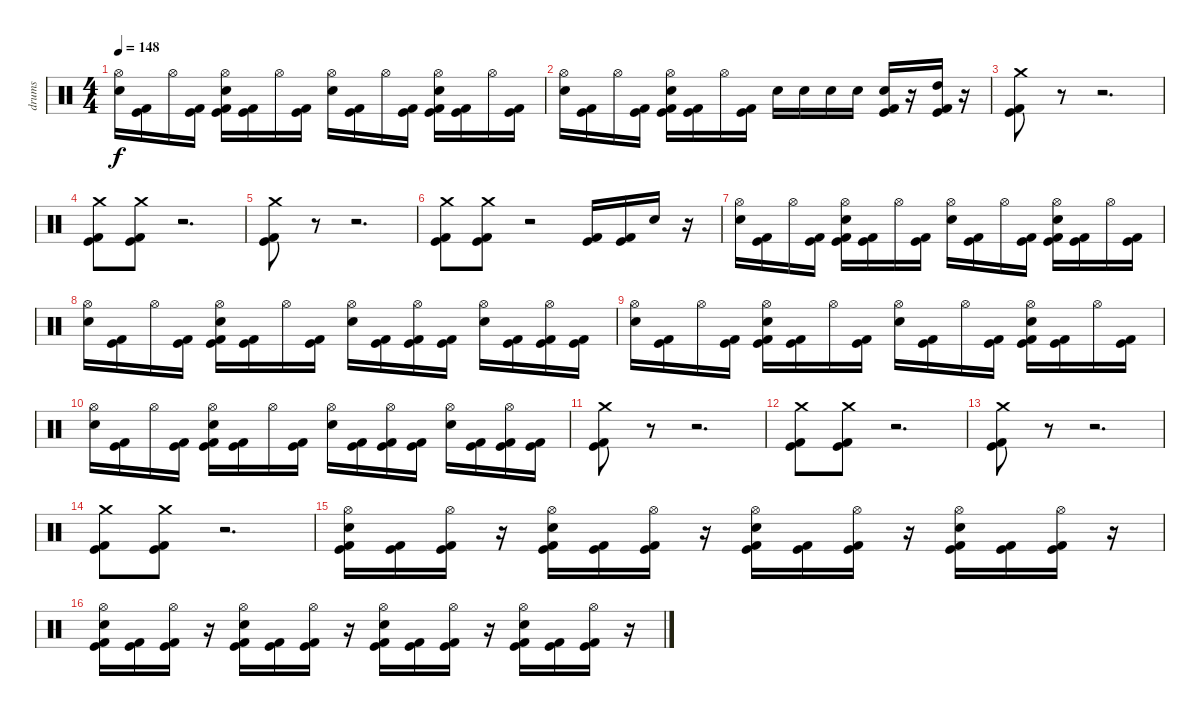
\track ("drums" "drums") {instrument percussion}
\staff {score}
\articulation defaults
\ts (4 4)
\tempo 148
\clef neutral
\ks c
("Snare (hit) 2" "Hi-Hat (open)").16{dy f} ("Kick (hit)" "Kick (hit) 2").16 "Hi-Hat (open)".16 ("Kick (hit)" "Kick (hit) 2").16 ("Kick (hit)" "Kick (hit) 2" "Snare (hit) 2" "Hi-Hat (open)").16 ("Kick (hit)" "Kick (hit) 2").16 "Hi-Hat (open)".16 ("Kick (hit)" "Kick (hit) 2").16 ("Snare (hit) 2" "Hi-Hat (open)").16 ("Kick (hit)" "Kick (hit) 2").16 "Hi-Hat (open)".16 ("Kick (hit)" "Kick (hit) 2").16 ("Kick (hit)" "Kick (hit) 2" "Snare (hit) 2" "Hi-Hat (open)").16 ("Kick (hit)" "Kick (hit) 2").16 "Hi-Hat (open)".16 ("Kick (hit)" "Kick (hit) 2").16 |
("Snare (hit) 2" "Hi-Hat (open)").16 ("Kick (hit)" "Kick (hit) 2").16 "Hi-Hat (open)".16 ("Kick (hit)" "Kick (hit) 2").16 ("Kick (hit)" "Kick (hit) 2" "Snare (hit) 2" "Hi-Hat (open)").16 ("Kick (hit)" "Kick (hit) 2").16 "Hi-Hat (open)".16 ("Kick (hit)" "Kick (hit) 2").16 "Snare (hit) 2".16 "Snare (hit) 2".16 "Snare (hit) 2".16 "Snare (hit) 2".16 ("Snare (hit) 2" "Kick (hit)" "Kick (hit) 2").16 r.16 ("High Tom (hit)" "Kick (hit)" "Kick (hit) 2").16 r.16 |
("Kick (hit) 2" "Kick (hit)" "Crash medium (hit)").8 r.8 r.2{d} |
("Kick (hit)" "Kick (hit) 2" "Crash medium (hit)").8 ("Kick (hit)" "Kick (hit) 2" "Crash medium (hit)").8 r.2{d} |
("Kick (hit) 2" "Kick (hit)" "Crash medium (hit)").8 r.8 r.2{d} |
("Kick (hit)" "Kick (hit) 2" "Crash medium (hit)").8 ("Kick (hit)" "Kick (hit) 2" "Crash medium (hit)").8 r.2 ("Kick (hit)" "Kick (hit) 2").16 ("Kick (hit)" "Kick (hit) 2").16 "Snare (hit) 2".16 r.16 |
("Snare (hit) 2" "Hi-Hat (open)").16 ("Kick (hit)" "Kick (hit) 2").16 "Hi-Hat (open)".16 ("Kick (hit)" "Kick (hit) 2").16 ("Kick (hit)" "Kick (hit) 2" "Snare (hit) 2" "Hi-Hat (open)").16 ("Kick (hit)" "Kick (hit) 2").16 "Hi-Hat (open)".16 ("Kick (hit)" "Kick (hit) 2").16 ("Snare (hit) 2" "Hi-Hat (open)").16 ("Kick (hit)" "Kick (hit) 2").16 "Hi-Hat (open)".16 ("Kick (hit)" "Kick (hit) 2").16 ("Kick (hit)" "Kick (hit) 2" "Snare (hit) 2" "Hi-Hat (open)").16 ("Kick (hit)" "Kick (hit) 2").16 "Hi-Hat (open)".16 ("Kick (hit)" "Kick (hit) 2").16 |
("Snare (hit) 2" "Hi-Hat (open)").16 ("Kick (hit)" "Kick (hit) 2").16 "Hi-Hat (open)".16 ("Kick (hit)" "Kick (hit) 2").16 ("Kick (hit)" "Kick (hit) 2" "Snare (hit) 2" "Hi-Hat (open)").16 ("Kick (hit)" "Kick (hit) 2").16 "Hi-Hat (open)".16 ("Kick (hit)" "Kick (hit) 2").16 ("Snare (hit) 2" "Hi-Hat (open)").16 ("Kick (hit)" "Kick (hit) 2").16 ("Kick (hit)" "Kick (hit) 2" "Hi-Hat (open)").16 ("Kick (hit)" "Kick (hit) 2").16 ("Snare (hit) 2" "Hi-Hat (open)").16 ("Kick (hit)" "Kick (hit) 2").16 ("Kick (hit)" "Kick (hit) 2" "Hi-Hat (open)").16 ("Kick (hit)" "Kick (hit) 2").16 |
("Snare (hit) 2" "Hi-Hat (open)").16 ("Kick (hit)" "Kick (hit) 2").16 "Hi-Hat (open)".16 ("Kick (hit)" "Kick (hit) 2").16 ("Kick (hit)" "Kick (hit) 2" "Snare (hit) 2" "Hi-Hat (open)").16 ("Kick (hit)" "Kick (hit) 2").16 "Hi-Hat (open)".16 ("Kick (hit)" "Kick (hit) 2").16 ("Snare (hit) 2" "Hi-Hat (open)").16 ("Kick (hit)" "Kick (hit) 2").16 "Hi-Hat (open)".16 ("Kick (hit)" "Kick (hit) 2").16 ("Kick (hit)" "Kick (hit) 2" "Snare (hit) 2" "Hi-Hat (open)").16 ("Kick (hit)" "Kick (hit) 2").16 "Hi-Hat (open)".16 ("Kick (hit)" "Kick (hit) 2").16 |
("Snare (hit) 2" "Hi-Hat (open)").16 ("Kick (hit)" "Kick (hit) 2").16 "Hi-Hat (open)".16 ("Kick (hit)" "Kick (hit) 2").16 ("Kick (hit)" "Kick (hit) 2" "Snare (hit) 2" "Hi-Hat (open)").16 ("Kick (hit)" "Kick (hit) 2").16 "Hi-Hat (open)".16 ("Kick (hit)" "Kick (hit) 2").16 ("Snare (hit) 2" "Hi-Hat (open)").16 ("Kick (hit)" "Kick (hit) 2").16 ("Kick (hit)" "Kick (hit) 2" "Hi-Hat (open)").16 ("Kick (hit)" "Kick (hit) 2").16 ("Snare (hit) 2" "Hi-Hat (open)").16 ("Kick (hit)" "Kick (hit) 2").16 ("Kick (hit)" "Kick (hit) 2" "Hi-Hat (open)").16 ("Kick (hit)" "Kick (hit) 2").16 |
("Kick (hit) 2" "Kick (hit)" "Crash medium (hit)").8 r.8 r.2{d} |
("Kick (hit)" "Kick (hit) 2" "Crash medium (hit)").8 ("Kick (hit)" "Kick (hit) 2" "Crash medium (hit)").8 r.2{d} |
("Kick (hit) 2" "Kick (hit)" "Crash medium (hit)").8 r.8 r.2{d} |
("Kick (hit)" "Kick (hit) 2" "Crash medium (hit)").8 ("Kick (hit)" "Kick (hit) 2" "Crash medium (hit)").8 r.2{d} |
("Kick (hit)" "Kick (hit) 2" "Snare (hit) 2" "Hi-Hat (open)").16 ("Kick (hit)" "Kick (hit) 2").16 ("Kick (hit)" "Kick (hit) 2" "Hi-Hat (open)").16 r.16 ("Kick (hit)" "Kick (hit) 2" "Snare (hit) 2" "Hi-Hat (open)").16 ("Kick (hit)" "Kick (hit) 2").16 ("Kick (hit)" "Kick (hit) 2" "Hi-Hat (open)").16 r.16 ("Kick (hit)" "Kick (hit) 2" "Snare (hit) 2" "Hi-Hat (open)").16 ("Kick (hit)" "Kick (hit) 2").16 ("Kick (hit)" "Kick (hit) 2" "Hi-Hat (open)").16 r.16 ("Kick (hit)" "Kick (hit) 2" "Snare (hit) 2" "Hi-Hat (open)").16 ("Kick (hit)" "Kick (hit) 2").16 ("Kick (hit)" "Kick (hit) 2" "Hi-Hat (open)").16 r.16 |
("Kick (hit)" "Kick (hit) 2" "Snare (hit) 2" "Hi-Hat (open)").16 ("Kick (hit)" "Kick (hit) 2").16 ("Kick (hit)" "Kick (hit) 2" "Hi-Hat (open)").16 r.16 ("Kick (hit)" "Kick (hit) 2" "Snare (hit) 2" "Hi-Hat (open)").16 ("Kick (hit)" "Kick (hit) 2").16 ("Kick (hit)" "Kick (hit) 2" "Hi-Hat (open)").16 r.16 ("Kick (hit)" "Kick (hit) 2" "Snare (hit) 2" "Hi-Hat (open)").16 ("Kick (hit)" "Kick (hit) 2").16 ("Kick (hit)" "Kick (hit) 2" "Hi-Hat (open)").16 r.16 ("Kick (hit)" "Kick (hit) 2" "Snare (hit) 2" "Hi-Hat (open)").16 ("Kick (hit)" "Kick (hit) 2").16 ("Kick (hit)" "Kick (hit) 2" "Hi-Hat (open)").16 r.16
